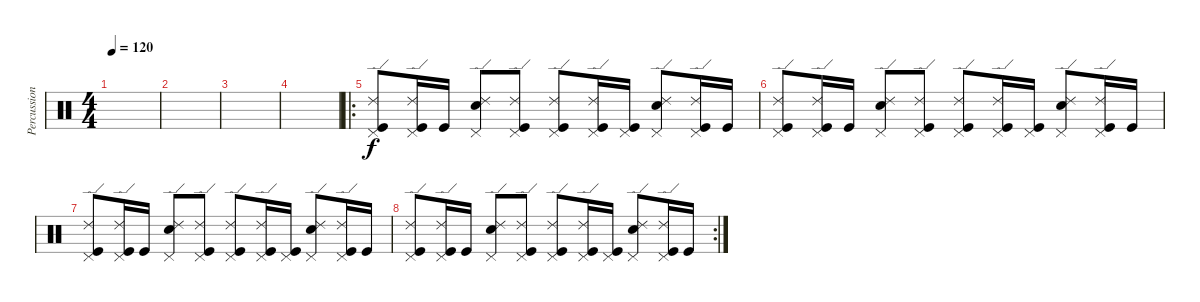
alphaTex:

\track ("Percussion" "Percussion") {instrument percussion}
\staff {score}
\articulation defaults
\ts (4 4)
\tempo 120
\clef neutral
\ks c
|
|
|
|
\ro
("Ride (edge) 2" "Kick (hit)" "Pedal Hi-Hat (hit)").8 ("Ride (edge) 2" "Kick (hit)" "Pedal Hi-Hat (hit)").16 "Kick (hit)".16 ("Ride (edge) 2" "Snare (hit) 2" "Pedal Hi-Hat (hit)").8 ("Ride (edge) 2" "Kick (hit)" "Pedal Hi-Hat (hit)").8 ("Ride (edge) 2" "Kick (hit)" "Pedal Hi-Hat (hit)").8 ("Ride (edge) 2" "Kick (hit)" "Pedal Hi-Hat (hit)").16 ("Kick (hit)" "Pedal Hi-Hat (hit)").16 ("Ride (edge) 2" "Snare (hit) 2" "Pedal Hi-Hat (hit)").8 ("Ride (edge) 2" "Kick (hit)" "Pedal Hi-Hat (hit)").16 "Kick (hit)".16 |
("Ride (edge) 2" "Kick (hit)" "Pedal Hi-Hat (hit)").8 ("Ride (edge) 2" "Kick (hit)" "Pedal Hi-Hat (hit)").16 "Kick (hit)".16 ("Ride (edge) 2" "Snare (hit) 2" "Pedal Hi-Hat (hit)").8 ("Ride (edge) 2" "Kick (hit)" "Pedal Hi-Hat (hit)").8 ("Ride (edge) 2" "Kick (hit)" "Pedal Hi-Hat (hit)").8 ("Ride (edge) 2" "Kick (hit)" "Pedal Hi-Hat (hit)").16 ("Kick (hit)" "Pedal Hi-Hat (hit)").16 ("Ride (edge) 2" "Snare (hit) 2" "Pedal Hi-Hat (hit)").8 ("Ride (edge) 2" "Kick (hit)" "Pedal Hi-Hat (hit)").16 "Kick (hit)".16 |
("Ride (edge) 2" "Kick (hit)" "Pedal Hi-Hat (hit)").8 ("Ride (edge) 2" "Kick (hit)" "Pedal Hi-Hat (hit)").16 "Kick (hit)".16 ("Ride (edge) 2" "Snare (hit) 2" "Pedal Hi-Hat (hit)").8 ("Ride (edge) 2" "Kick (hit)" "Pedal Hi-Hat (hit)").8 ("Ride (edge) 2" "Kick (hit)" "Pedal Hi-Hat (hit)").8 ("Ride (edge) 2" "Kick (hit)" "Pedal Hi-Hat (hit)").16 ("Kick (hit)" "Pedal Hi-Hat (hit)").16 ("Ride (edge) 2" "Snare (hit) 2" "Pedal Hi-Hat (hit)").8 ("Ride (edge) 2" "Kick (hit)" "Pedal Hi-Hat (hit)").16 "Kick (hit)".16 |
\rc 2
("Ride (edge) 2" "Kick (hit)" "Pedal Hi-Hat (hit)").8 ("Ride (edge) 2" "Kick (hit)" "Pedal Hi-Hat (hit)").16 "Kick (hit)".16 ("Ride (edge) 2" "Snare (hit) 2" "Pedal Hi-Hat (hit)").8 ("Ride (edge) 2" "Kick (hit)" "Pedal Hi-Hat (hit)").8 ("Ride (edge) 2" "Kick (hit)" "Pedal Hi-Hat (hit)").8 ("Ride (edge) 2" "Kick (hit)" "Pedal Hi-Hat (hit)").16 ("Kick (hit)" "Pedal Hi-Hat (hit)").16 ("Ride (edge) 2" "Snare (hit) 2" "Pedal Hi-Hat (hit)").8 ("Ride (edge) 2" "Kick (hit)" "Pedal Hi-Hat (hit)").16 "Kick (hit)".16
